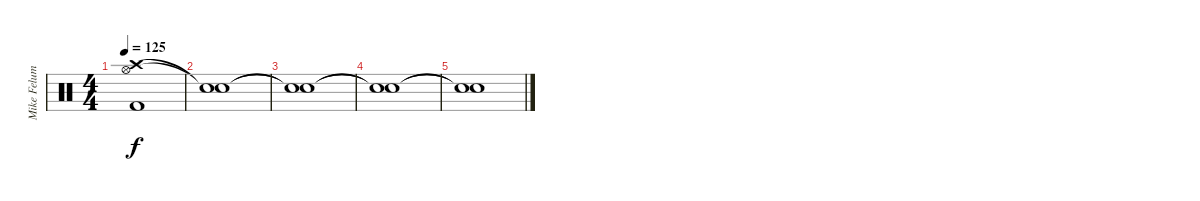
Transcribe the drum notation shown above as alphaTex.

\track ("Mike Felumlee" "Mike Felum") {instrument percussion}
\staff {score}
\articulation defaults
\ts (4 4)
\tempo 125
\clef neutral
\ks c
("Crash high (hit)" "Hi-Hat (open)" "Kick (hit) 2").1{dy f} |
("Snare (hit)"{t} "Snare (hit)"{t}).1 |
("Snare (hit)"{t} "Snare (hit)"{t}).1 |
("Snare (hit)"{t} "Snare (hit)"{t}).1 |
("Snare (hit)"{t} "Snare (hit)"{t}).1
